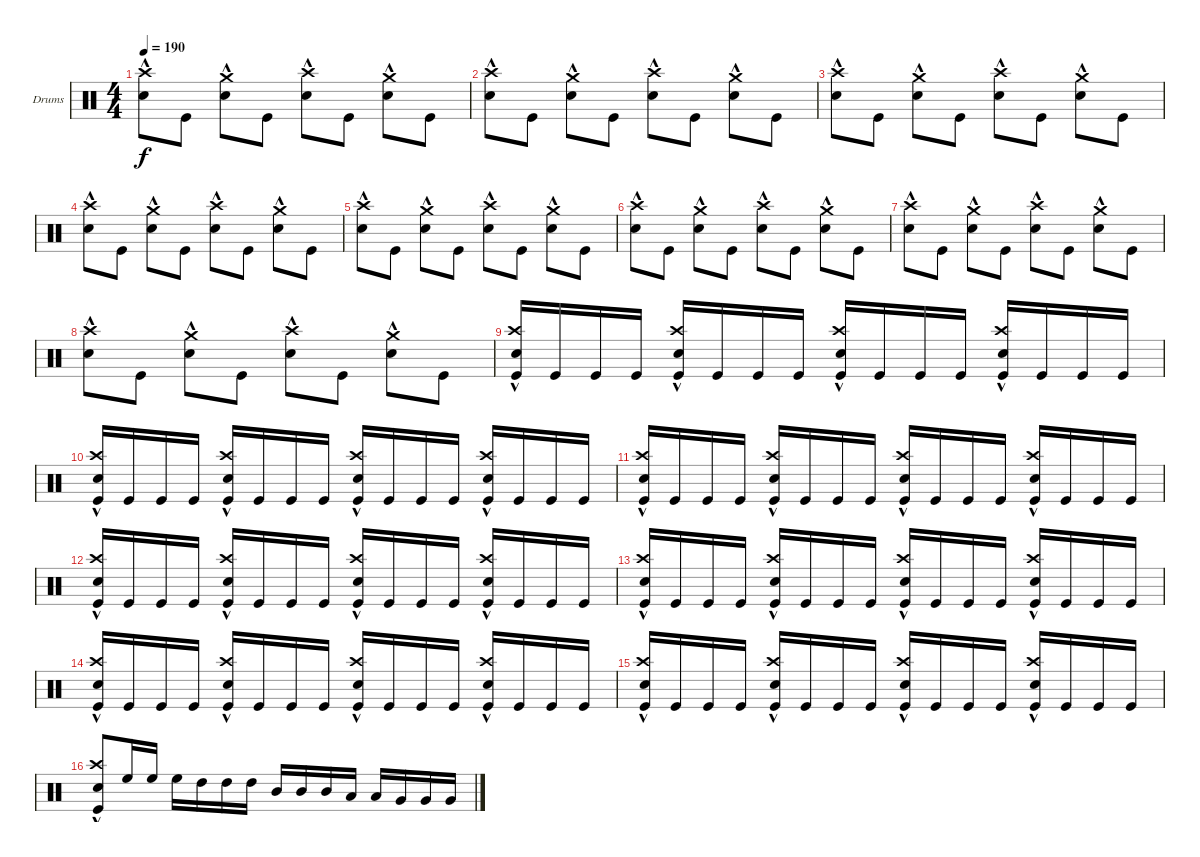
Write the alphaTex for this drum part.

\bracketExtendMode groupsimilarinstruments
\firstSystemTrackNameOrientation horizontal
\otherSystemsTrackNameOrientation horizontal
\track ("Drumkit" "Drums") {instrument percussion}
\staff {score}
\articulation defaults
\ts (4 4)
\tempo 190
\clef neutral
\scale
0.333333
\ks c
("Snare (hit) 2"{hac} "Crash high (hit)").8{dy f} "Kick (hit)".8 ("Snare (hit) 2"{hac} "Crash medium (hit)").8 "Kick (hit)".8 ("Snare (hit) 2"{hac} "Crash high (hit)").8 "Kick (hit)".8 ("Snare (hit) 2"{hac} "Crash medium (hit)").8 "Kick (hit)".8 |
\scale
0.333333 ("Snare (hit) 2"{hac} "Crash high (hit)").8 "Kick (hit)".8 ("Snare (hit) 2"{hac} "Crash medium (hit)").8 "Kick (hit)".8 ("Snare (hit) 2"{hac} "Crash high (hit)").8 "Kick (hit)".8 ("Snare (hit) 2"{hac} "Crash medium (hit)").8 "Kick (hit)".8 |
\scale
0.333333 ("Snare (hit) 2"{hac} "Crash high (hit)").8 "Kick (hit)".8 ("Snare (hit) 2"{hac} "Crash medium (hit)").8 "Kick (hit)".8 ("Snare (hit) 2"{hac} "Crash high (hit)").8 "Kick (hit)".8 ("Snare (hit) 2"{hac} "Crash medium (hit)").8 "Kick (hit)".8 |
\scale
0.333333 ("Snare (hit) 2"{hac} "Crash high (hit)").8 "Kick (hit)".8 ("Snare (hit) 2"{hac} "Crash medium (hit)").8 "Kick (hit)".8 ("Snare (hit) 2"{hac} "Crash high (hit)").8 "Kick (hit)".8 ("Snare (hit) 2"{hac} "Crash medium (hit)").8 "Kick (hit)".8 |
\scale
0.333333 ("Snare (hit) 2"{hac} "Crash high (hit)").8 "Kick (hit)".8 ("Snare (hit) 2"{hac} "Crash medium (hit)").8 "Kick (hit)".8 ("Snare (hit) 2"{hac} "Crash high (hit)").8 "Kick (hit)".8 ("Snare (hit) 2"{hac} "Crash medium (hit)").8 "Kick (hit)".8 |
\scale
0.333333 ("Snare (hit) 2"{hac} "Crash high (hit)").8 "Kick (hit)".8 ("Snare (hit) 2"{hac} "Crash medium (hit)").8 "Kick (hit)".8 ("Snare (hit) 2"{hac} "Crash high (hit)").8 "Kick (hit)".8 ("Snare (hit) 2"{hac} "Crash medium (hit)").8 "Kick (hit)".8 |
\scale
0.333333 ("Snare (hit) 2"{hac} "Crash high (hit)").8 "Kick (hit)".8 ("Snare (hit) 2"{hac} "Crash medium (hit)").8 "Kick (hit)".8 ("Snare (hit) 2"{hac} "Crash high (hit)").8 "Kick (hit)".8 ("Snare (hit) 2"{hac} "Crash medium (hit)").8 "Kick (hit)".8 |
\scale
0.333333 ("Snare (hit) 2"{hac} "Crash high (hit)").8 "Kick (hit)".8 ("Snare (hit) 2"{hac} "Crash medium (hit)").8 "Kick (hit)".8 ("Snare (hit) 2"{hac} "Crash high (hit)").8 "Kick (hit)".8 ("Snare (hit) 2"{hac} "Crash medium (hit)").8 "Kick (hit)".8 |
\scale
0.333333 ("Kick (hit)" "Snare (hit) 2"{hac} "Crash high (hit)").16 "Kick (hit)".16 "Kick (hit)".16 "Kick (hit)".16 ("Kick (hit)" "Snare (hit) 2"{hac} "Crash high (hit)").16 "Kick (hit)".16 "Kick (hit)".16 "Kick (hit)".16 ("Kick (hit)" "Snare (hit) 2"{hac} "Crash high (hit)").16 "Kick (hit)".16 "Kick (hit)".16 "Kick (hit)".16 ("Kick (hit)" "Snare (hit) 2"{hac} "Crash high (hit)").16 "Kick (hit)".16 "Kick (hit)".16 "Kick (hit)".16 |
\scale
0.333333 ("Kick (hit)" "Snare (hit) 2"{hac} "Crash high (hit)").16 "Kick (hit)".16 "Kick (hit)".16 "Kick (hit)".16 ("Kick (hit)" "Snare (hit) 2"{hac} "Crash high (hit)").16 "Kick (hit)".16 "Kick (hit)".16 "Kick (hit)".16 ("Kick (hit)" "Snare (hit) 2"{hac} "Crash high (hit)").16 "Kick (hit)".16 "Kick (hit)".16 "Kick (hit)".16 ("Kick (hit)" "Snare (hit) 2"{hac} "Crash high (hit)").16 "Kick (hit)".16 "Kick (hit)".16 "Kick (hit)".16 |
\scale
0.333333 ("Kick (hit)" "Snare (hit) 2"{hac} "Crash high (hit)").16 "Kick (hit)".16 "Kick (hit)".16 "Kick (hit)".16 ("Kick (hit)" "Snare (hit) 2"{hac} "Crash high (hit)").16 "Kick (hit)".16 "Kick (hit)".16 "Kick (hit)".16 ("Kick (hit)" "Snare (hit) 2"{hac} "Crash high (hit)").16 "Kick (hit)".16 "Kick (hit)".16 "Kick (hit)".16 ("Kick (hit)" "Snare (hit) 2"{hac} "Crash high (hit)").16 "Kick (hit)".16 "Kick (hit)".16 "Kick (hit)".16 |
\scale
0.333333 ("Kick (hit)" "Snare (hit) 2"{hac} "Crash high (hit)").16 "Kick (hit)".16 "Kick (hit)".16 "Kick (hit)".16 ("Kick (hit)" "Snare (hit) 2"{hac} "Crash high (hit)").16 "Kick (hit)".16 "Kick (hit)".16 "Kick (hit)".16 ("Kick (hit)" "Snare (hit) 2"{hac} "Crash high (hit)").16 "Kick (hit)".16 "Kick (hit)".16 "Kick (hit)".16 ("Kick (hit)" "Snare (hit) 2"{hac} "Crash high (hit)").16 "Kick (hit)".16 "Kick (hit)".16 "Kick (hit)".16 |
\scale
0.333333 ("Kick (hit)" "Snare (hit) 2"{hac} "Crash high (hit)").16 "Kick (hit)".16 "Kick (hit)".16 "Kick (hit)".16 ("Kick (hit)" "Snare (hit) 2"{hac} "Crash high (hit)").16 "Kick (hit)".16 "Kick (hit)".16 "Kick (hit)".16 ("Kick (hit)" "Snare (hit) 2"{hac} "Crash high (hit)").16 "Kick (hit)".16 "Kick (hit)".16 "Kick (hit)".16 ("Kick (hit)" "Snare (hit) 2"{hac} "Crash high (hit)").16 "Kick (hit)".16 "Kick (hit)".16 "Kick (hit)".16 |
\scale
0.333333 ("Kick (hit)" "Snare (hit) 2"{hac} "Crash high (hit)").16 "Kick (hit)".16 "Kick (hit)".16 "Kick (hit)".16 ("Kick (hit)" "Snare (hit) 2"{hac} "Crash high (hit)").16 "Kick (hit)".16 "Kick (hit)".16 "Kick (hit)".16 ("Kick (hit)" "Snare (hit) 2"{hac} "Crash high (hit)").16 "Kick (hit)".16 "Kick (hit)".16 "Kick (hit)".16 ("Kick (hit)" "Snare (hit) 2"{hac} "Crash high (hit)").16 "Kick (hit)".16 "Kick (hit)".16 "Kick (hit)".16 |
\scale
0.333333 ("Kick (hit)" "Snare (hit) 2"{hac} "Crash high (hit)").16 "Kick (hit)".16 "Kick (hit)".16 "Kick (hit)".16 ("Kick (hit)" "Snare (hit) 2"{hac} "Crash high (hit)").16 "Kick (hit)".16 "Kick (hit)".16 "Kick (hit)".16 ("Kick (hit)" "Snare (hit) 2"{hac} "Crash high (hit)").16 "Kick (hit)".16 "Kick (hit)".16 "Kick (hit)".16 ("Kick (hit)" "Snare (hit) 2"{hac} "Crash high (hit)").16 "Kick (hit)".16 "Kick (hit)".16 "Kick (hit)".16 |
\scale
0.333333 ("Kick (hit)" "Snare (hit) 2"{hac} "Crash high (hit)").8 "High Floor Tom (hit)".16 "High Floor Tom (hit)".16 "High Floor Tom (hit)".16 "High Tom (hit)".16 "High Tom (hit)".16 "High Tom (hit)".16 "Mid Tom (hit)".16 "Mid Tom (hit)".16 "Mid Tom (hit)".16 "Low Tom (hit)".16 "Low Tom (hit)".16 "Very Low Tom (hit)".16 "Very Low Tom (hit)".16 "Very Low Tom (hit)".16
